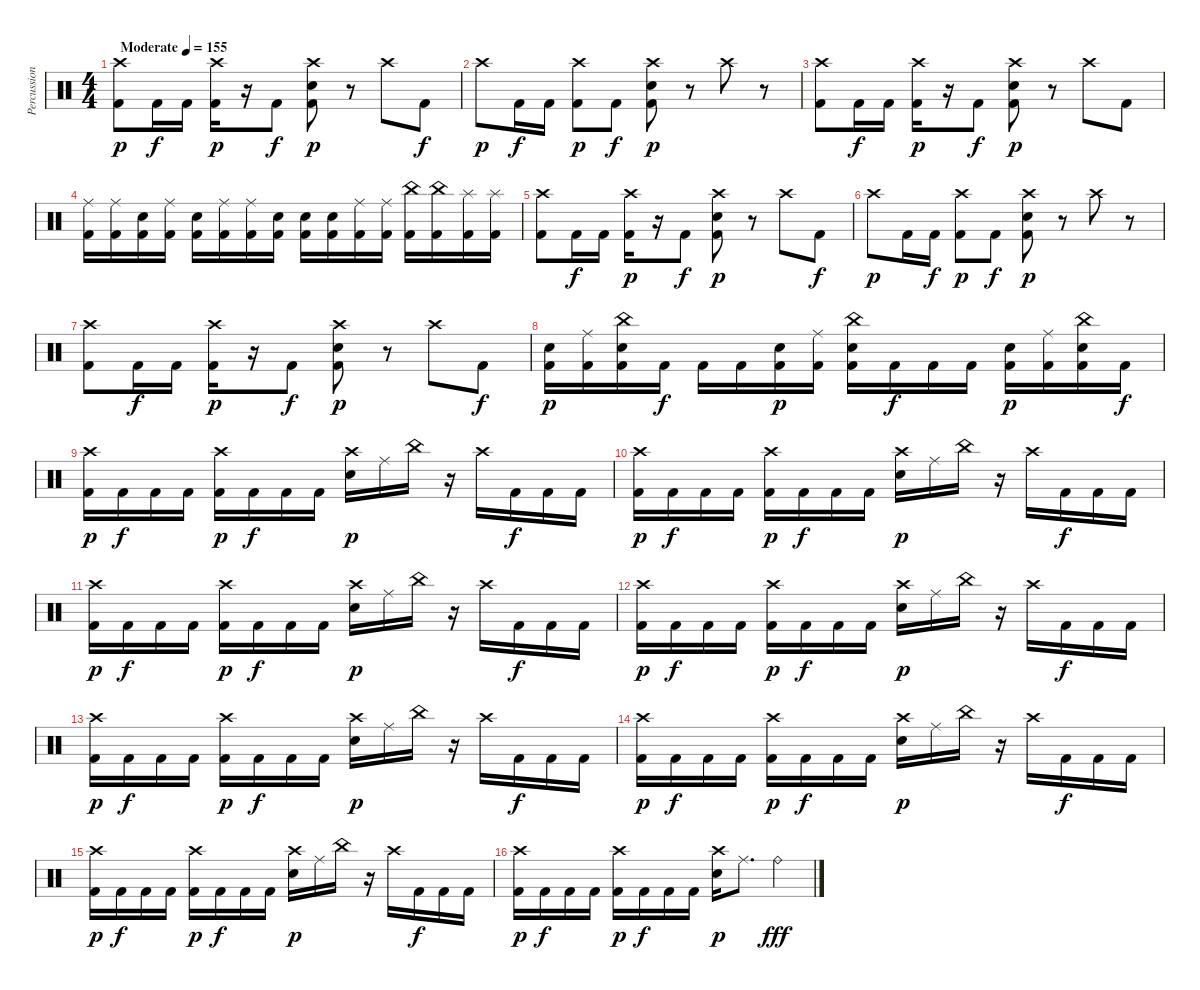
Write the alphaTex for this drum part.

\track ("Percussion" "Percussion") {instrument percussion}
\staff {score}
\articulation defaults
\ts (4 4)
\tempo (155 "Moderate")
\clef neutral
\ks c
("Crash high (hit)" "Kick (hit) 2").8{dy p} "Kick (hit) 2".16{dy f} "Kick (hit) 2".16 ("Crash high (hit)" "Kick (hit) 2").16{dy p} r.16 "Kick (hit) 2".8{dy f} ("Crash high (hit)" "Electric Snare (hit)" "Kick (hit) 2").8{dy p} r.8 "Crash high (hit)".8 "Kick (hit) 2".8{dy f} |
"Crash high (hit)".8{dy p} "Kick (hit) 2".16{dy f} "Kick (hit) 2".16 ("Crash high (hit)" "Kick (hit) 2").8{dy p} "Kick (hit) 2".8{dy f} ("Crash high (hit)" "Electric Snare (hit)" "Kick (hit) 2").8{dy p} r.8 "Crash high (hit)".8 r.8 |
("Crash high (hit)" "Kick (hit) 2").8 "Kick (hit) 2".16{dy f} "Kick (hit) 2".16 ("Crash high (hit)" "Kick (hit) 2").16{dy p} r.16 "Kick (hit) 2".8{dy f} ("Crash high (hit)" "Electric Snare (hit)" "Kick (hit) 2").8{dy p} r.8 "Crash high (hit)".8 "Kick (hit) 2".8 |
("Ride (middle)" "Kick (hit) 2").16 ("Ride (middle)" "Kick (hit) 2").16 ("Electric Snare (hit)" "Kick (hit) 2").16 ("Ride (middle)" "Kick (hit) 2").16 ("Electric Snare (hit)" "Kick (hit) 2").16 ("Ride (middle)" "Kick (hit) 2").16 ("Ride (middle)" "Kick (hit) 2").16 ("Electric Snare (hit)" "Kick (hit) 2").16 ("Electric Snare (hit)" "Kick (hit) 2").16 ("Electric Snare (hit)" "Kick (hit) 2").16 ("Ride (middle)" "Kick (hit) 2").16 ("Ride (middle)" "Kick (hit) 2").16 ("China (hit)" "Kick (hit) 2").16 ("China (hit)" "Kick (hit) 2").16 ("Splash (hit)" "Kick (hit) 2").16 ("Splash (hit)" "Kick (hit) 2").16 |
("Crash high (hit)" "Kick (hit) 2").8 "Kick (hit) 2".16{dy f} "Kick (hit) 2".16 ("Crash high (hit)" "Kick (hit) 2").16{dy p} r.16 "Kick (hit) 2".8{dy f} ("Crash high (hit)" "Electric Snare (hit)" "Kick (hit) 2").8{dy p} r.8 "Crash high (hit)".8 "Kick (hit) 2".8{dy f} |
"Crash high (hit)".8{dy p} "Kick (hit) 2".16 "Kick (hit) 2".16{dy f} ("Crash high (hit)" "Kick (hit) 2").8{dy p} "Kick (hit) 2".8{dy f} ("Crash high (hit)" "Electric Snare (hit)" "Kick (hit) 2").8{dy p} r.8 "Crash high (hit)".8 r.8 |
("Crash high (hit)" "Kick (hit) 2").8 "Kick (hit) 2".16{dy f} "Kick (hit) 2".16 ("Crash high (hit)" "Kick (hit) 2").16{dy p} r.16 "Kick (hit) 2".8{dy f} ("Crash high (hit)" "Electric Snare (hit)" "Kick (hit) 2").8{dy p} r.8 "Crash high (hit)".8 "Kick (hit) 2".8{dy f} |
("Electric Snare (hit)" "Kick (hit) 2").16{dy p} ("Ride (middle)" "Kick (hit) 2").16 ("China (hit)" "Electric Snare (hit)" "Kick (hit) 2").16 "Kick (hit) 2".16{dy f} "Kick (hit) 2".16 "Kick (hit) 2".16 ("Electric Snare (hit)" "Kick (hit) 2").16{dy p} ("Ride (middle)" "Kick (hit) 2").16 ("China (hit)" "Electric Snare (hit)" "Kick (hit) 2").16 "Kick (hit) 2".16{dy f} "Kick (hit) 2".16 "Kick (hit) 2".16 ("Electric Snare (hit)" "Kick (hit) 2").16{dy p} ("Ride (middle)" "Kick (hit) 2").16 ("China (hit)" "Electric Snare (hit)" "Kick (hit) 2").16 "Kick (hit) 2".16{dy f} |
("Crash high (hit)" "Kick (hit) 2").16{dy p} "Kick (hit) 2".16{dy f} "Kick (hit) 2".16 "Kick (hit) 2".16 ("Crash high (hit)" "Kick (hit) 2").16{dy p} "Kick (hit) 2".16{dy f} "Kick (hit) 2".16 "Kick (hit) 2".16 ("Crash high (hit)" "Electric Snare (hit)").16{dy p} "Ride (middle)".16 "China (hit)".16 r.16 "Crash high (hit)".16 "Kick (hit) 2".16{dy f} "Kick (hit) 2".16 "Kick (hit) 2".16 |
("Crash high (hit)" "Kick (hit) 2").16{dy p} "Kick (hit) 2".16{dy f} "Kick (hit) 2".16 "Kick (hit) 2".16 ("Crash high (hit)" "Kick (hit) 2").16{dy p} "Kick (hit) 2".16{dy f} "Kick (hit) 2".16 "Kick (hit) 2".16 ("Crash high (hit)" "Electric Snare (hit)").16{dy p} "Ride (middle)".16 "China (hit)".16 r.16 "Crash high (hit)".16 "Kick (hit) 2".16{dy f} "Kick (hit) 2".16 "Kick (hit) 2".16 |
("Crash high (hit)" "Kick (hit) 2").16{dy p} "Kick (hit) 2".16{dy f} "Kick (hit) 2".16 "Kick (hit) 2".16 ("Crash high (hit)" "Kick (hit) 2").16{dy p} "Kick (hit) 2".16{dy f} "Kick (hit) 2".16 "Kick (hit) 2".16 ("Crash high (hit)" "Electric Snare (hit)").16{dy p} "Ride (middle)".16 "China (hit)".16 r.16 "Crash high (hit)".16 "Kick (hit) 2".16{dy f} "Kick (hit) 2".16 "Kick (hit) 2".16 |
("Crash high (hit)" "Kick (hit) 2").16{dy p} "Kick (hit) 2".16{dy f} "Kick (hit) 2".16 "Kick (hit) 2".16 ("Crash high (hit)" "Kick (hit) 2").16{dy p} "Kick (hit) 2".16{dy f} "Kick (hit) 2".16 "Kick (hit) 2".16 ("Crash high (hit)" "Electric Snare (hit)").16{dy p} "Ride (middle)".16 "China (hit)".16 r.16 "Crash high (hit)".16 "Kick (hit) 2".16{dy f} "Kick (hit) 2".16 "Kick (hit) 2".16 |
("Crash high (hit)" "Kick (hit) 2").16{dy p} "Kick (hit) 2".16{dy f} "Kick (hit) 2".16 "Kick (hit) 2".16 ("Crash high (hit)" "Kick (hit) 2").16{dy p} "Kick (hit) 2".16{dy f} "Kick (hit) 2".16 "Kick (hit) 2".16 ("Crash high (hit)" "Electric Snare (hit)").16{dy p} "Ride (middle)".16 "China (hit)".16 r.16 "Crash high (hit)".16 "Kick (hit) 2".16{dy f} "Kick (hit) 2".16 "Kick (hit) 2".16 |
("Crash high (hit)" "Kick (hit) 2").16{dy p} "Kick (hit) 2".16{dy f} "Kick (hit) 2".16 "Kick (hit) 2".16 ("Crash high (hit)" "Kick (hit) 2").16{dy p} "Kick (hit) 2".16{dy f} "Kick (hit) 2".16 "Kick (hit) 2".16 ("Crash high (hit)" "Electric Snare (hit)").16{dy p} "Ride (middle)".16 "China (hit)".16 r.16 "Crash high (hit)".16 "Kick (hit) 2".16{dy f} "Kick (hit) 2".16 "Kick (hit) 2".16 |
("Crash high (hit)" "Kick (hit) 2").16{dy p} "Kick (hit) 2".16{dy f} "Kick (hit) 2".16 "Kick (hit) 2".16 ("Crash high (hit)" "Kick (hit) 2").16{dy p} "Kick (hit) 2".16{dy f} "Kick (hit) 2".16 "Kick (hit) 2".16 ("Crash high (hit)" "Electric Snare (hit)").16{dy p} "Ride (middle)".16 "China (hit)".16 r.16 "Crash high (hit)".16 "Kick (hit) 2".16{dy f} "Kick (hit) 2".16 "Kick (hit) 2".16 |
("Crash high (hit)" "Kick (hit) 2").16{dy p} "Kick (hit) 2".16{dy f} "Kick (hit) 2".16 "Kick (hit) 2".16 ("Crash high (hit)" "Kick (hit) 2").16{dy p} "Kick (hit) 2".16{dy f} "Kick (hit) 2".16 "Kick (hit) 2".16 ("Crash high (hit)" "Electric Snare (hit)").16{dy p} "Ride (middle)".8{d} "Ride (bell)".4{dy fff}
